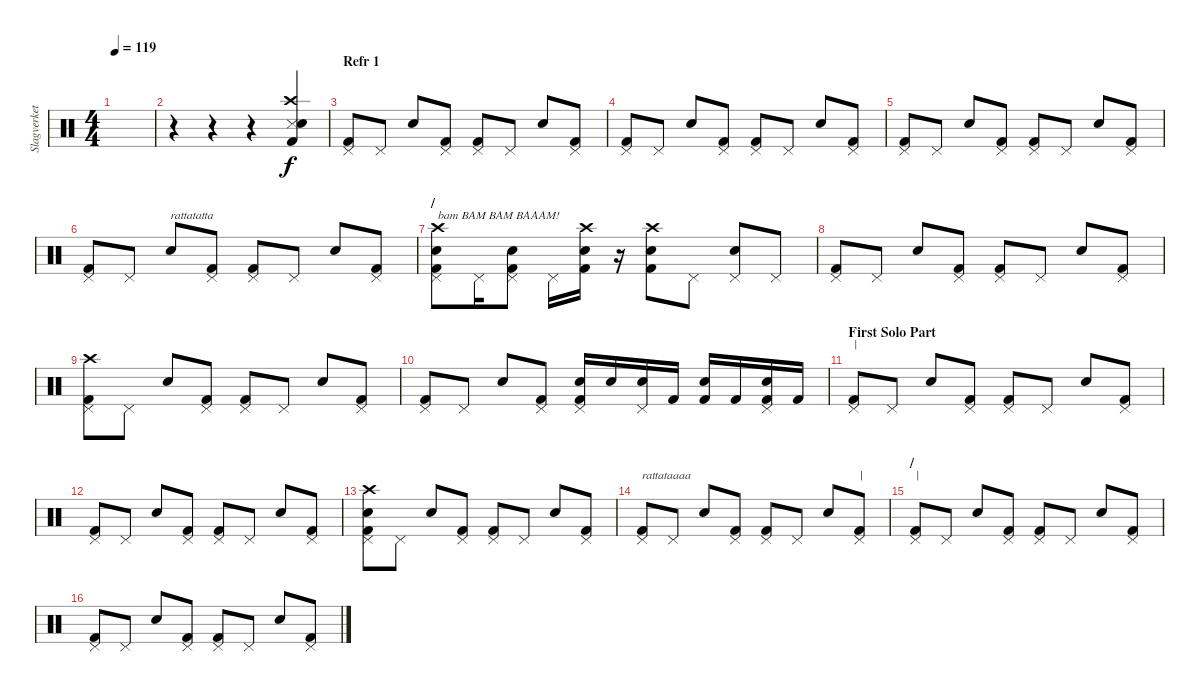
\track ("Slagverket!" "Slagverket") {instrument percussion}
\staff {score}
\articulation defaults
\ts (4 4)
\tempo 119
\clef neutral
\ks c
|
r.4 r.4 r.4 ("Metronome (hit)" "Crash high (hit)" "Snare (hit) 2" "Kick (hit) 2").4 |
\section ("" "Refr 1")
("Pedal Hi-Hat (hit)" "Kick (hit) 2").8 "Pedal Hi-Hat (hit)".8 "Snare (hit) 2".8 ("Pedal Hi-Hat (hit)" "Kick (hit) 2").8 ("Pedal Hi-Hat (hit)" "Kick (hit) 2").8 "Pedal Hi-Hat (hit)".8 "Snare (hit) 2".8 ("Pedal Hi-Hat (hit)" "Kick (hit) 2").8 |
("Pedal Hi-Hat (hit)" "Kick (hit) 2").8 "Pedal Hi-Hat (hit)".8 "Snare (hit) 2".8 ("Pedal Hi-Hat (hit)" "Kick (hit) 2").8 ("Pedal Hi-Hat (hit)" "Kick (hit) 2").8 "Pedal Hi-Hat (hit)".8 "Snare (hit) 2".8 ("Pedal Hi-Hat (hit)" "Kick (hit) 2").8 |
("Pedal Hi-Hat (hit)" "Kick (hit) 2").8 "Pedal Hi-Hat (hit)".8 "Snare (hit) 2".8 ("Pedal Hi-Hat (hit)" "Kick (hit) 2").8 ("Pedal Hi-Hat (hit)" "Kick (hit) 2").8 "Pedal Hi-Hat (hit)".8 "Snare (hit) 2".8 ("Pedal Hi-Hat (hit)" "Kick (hit) 2").8 |
("Pedal Hi-Hat (hit)" "Kick (hit) 2").8 "Pedal Hi-Hat (hit)".8 "Snare (hit) 2".8{txt "rattatatta"} ("Pedal Hi-Hat (hit)" "Kick (hit) 2").8 ("Pedal Hi-Hat (hit)" "Kick (hit) 2").8 "Pedal Hi-Hat (hit)".8 "Snare (hit) 2".8 ("Pedal Hi-Hat (hit)" "Kick (hit) 2").8 |
\section ("" "/")
("Pedal Hi-Hat (hit)" "Crash high (hit)" "Snare (hit) 2" "Kick (hit) 2").8{txt "bam BAM BAM BAAAM!"} "Pedal Hi-Hat (hit)".16 ("Pedal Hi-Hat (hit)" "Snare (hit) 2" "Kick (hit) 2").8 "Pedal Hi-Hat (hit)".16 ("Crash high (hit)" "Electric Snare (hit)" "Kick (hit) 2").16 r.16 ("Crash high (hit)" "Snare (hit) 2" "Kick (hit) 2").8 "Pedal Hi-Hat (hit)".8 ("Pedal Hi-Hat (hit)" "Snare (hit) 2").8 "Pedal Hi-Hat (hit)".8 |
("Pedal Hi-Hat (hit)" "Kick (hit) 2").8 "Pedal Hi-Hat (hit)".8 "Snare (hit) 2".8 ("Pedal Hi-Hat (hit)" "Kick (hit) 2").8 ("Pedal Hi-Hat (hit)" "Kick (hit) 2").8 "Pedal Hi-Hat (hit)".8 "Snare (hit) 2".8 ("Pedal Hi-Hat (hit)" "Kick (hit) 2").8 |
("Pedal Hi-Hat (hit)" "Crash high (hit)" "Kick (hit) 2").8 "Pedal Hi-Hat (hit)".8 "Snare (hit) 2".8 ("Pedal Hi-Hat (hit)" "Kick (hit) 2").8 ("Pedal Hi-Hat (hit)" "Kick (hit) 2").8 "Pedal Hi-Hat (hit)".8 "Snare (hit) 2".8 ("Pedal Hi-Hat (hit)" "Kick (hit) 2").8 |
("Pedal Hi-Hat (hit)" "Kick (hit) 2").8 "Pedal Hi-Hat (hit)".8 "Snare (hit) 2".8 ("Pedal Hi-Hat (hit)" "Kick (hit) 2").8 ("Pedal Hi-Hat (hit)" "Electric Snare (hit)" "Kick (hit) 2").16 "Electric Snare (hit)".16 ("Pedal Hi-Hat (hit)" "Electric Snare (hit)").16 "Kick (hit) 2".16 ("Snare (hit) 2" "Kick (hit) 2").16 "Kick (hit) 2".16 ("Pedal Hi-Hat (hit)" "Snare (hit) 2" "Kick (hit) 2").16 "Kick (hit) 2".16 |
\section ("" "First Solo Part")
("Pedal Hi-Hat (hit)" "Kick (hit) 2").8{txt "|"} "Pedal Hi-Hat (hit)".8 "Snare (hit) 2".8 ("Pedal Hi-Hat (hit)" "Kick (hit) 2").8 ("Pedal Hi-Hat (hit)" "Kick (hit) 2").8 "Pedal Hi-Hat (hit)".8 "Snare (hit) 2".8 ("Pedal Hi-Hat (hit)" "Kick (hit) 2").8 |
("Pedal Hi-Hat (hit)" "Kick (hit) 2").8 "Pedal Hi-Hat (hit)".8 "Snare (hit) 2".8 ("Pedal Hi-Hat (hit)" "Kick (hit) 2").8 ("Pedal Hi-Hat (hit)" "Kick (hit) 2").8 "Pedal Hi-Hat (hit)".8 "Snare (hit) 2".8 ("Pedal Hi-Hat (hit)" "Kick (hit) 2").8 |
("Pedal Hi-Hat (hit)" "Crash high (hit)" "Snare (hit) 2" "Kick (hit) 2").8 "Pedal Hi-Hat (hit)".8 "Snare (hit) 2".8 ("Pedal Hi-Hat (hit)" "Kick (hit) 2").8 ("Pedal Hi-Hat (hit)" "Kick (hit) 2").8 "Pedal Hi-Hat (hit)".8 "Snare (hit) 2".8 ("Pedal Hi-Hat (hit)" "Kick (hit) 2").8 |
("Pedal Hi-Hat (hit)" "Kick (hit) 2").8{txt "rattataaaa"} "Pedal Hi-Hat (hit)".8 "Snare (hit) 2".8 ("Pedal Hi-Hat (hit)" "Kick (hit) 2").8 ("Pedal Hi-Hat (hit)" "Kick (hit) 2").8 "Pedal Hi-Hat (hit)".8 "Snare (hit) 2".8 ("Pedal Hi-Hat (hit)" "Kick (hit) 2").8{txt "|"} |
\section ("" "/")
("Pedal Hi-Hat (hit)" "Kick (hit) 2").8{txt "|"} "Pedal Hi-Hat (hit)".8 "Snare (hit) 2".8 ("Pedal Hi-Hat (hit)" "Kick (hit) 2").8 ("Pedal Hi-Hat (hit)" "Kick (hit) 2").8 "Pedal Hi-Hat (hit)".8 "Snare (hit) 2".8 ("Pedal Hi-Hat (hit)" "Kick (hit) 2").8 |
("Pedal Hi-Hat (hit)" "Kick (hit) 2").8 "Pedal Hi-Hat (hit)".8 "Snare (hit) 2".8 ("Pedal Hi-Hat (hit)" "Kick (hit) 2").8 ("Pedal Hi-Hat (hit)" "Kick (hit) 2").8 "Pedal Hi-Hat (hit)".8 "Snare (hit) 2".8 ("Pedal Hi-Hat (hit)" "Kick (hit) 2").8
